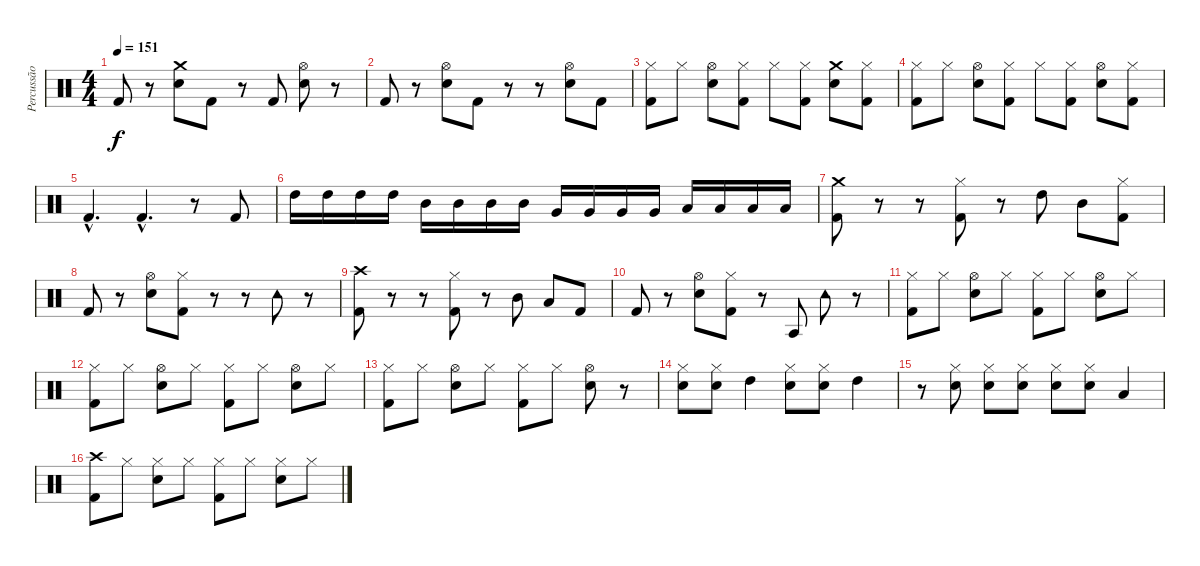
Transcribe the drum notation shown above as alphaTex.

\track ("Percussão" "Percussão") {instrument percussion}
\staff {score}
\articulation defaults
\ts (4 4)
\tempo 151
\clef neutral
\ks c "Kick (hit) 2".8{dy f}
r.8 ("Snare (hit) 2" "Crash medium (hit)").8 "Kick (hit) 2".8 r.8 "Kick (hit) 2".8 ("Snare (hit) 2" "Hi-Hat (open)").8 r.8 |
"Kick (hit) 2".8 r.8 ("Snare (hit) 2" "Hi-Hat (open)").8 "Kick (hit) 2".8 r.8 r.8 ("Snare (hit) 2" "Hi-Hat (open)").8 "Kick (hit) 2".8 |
("Kick (hit) 2" "Hi-Hat (closed)").8 "Hi-Hat (closed)".8 ("Snare (hit) 2" "Hi-Hat (open)").8 ("Kick (hit) 2" "Hi-Hat (closed)").8 "Hi-Hat (closed)".8 ("Kick (hit) 2" "Hi-Hat (closed)").8 ("Snare (hit) 2" "Crash medium (hit)").8 ("Kick (hit) 2" "Hi-Hat (closed)").8 |
("Kick (hit) 2" "Hi-Hat (closed)").8 "Hi-Hat (closed)".8 ("Snare (hit) 2" "Hi-Hat (open)").8 ("Kick (hit) 2" "Hi-Hat (closed)").8 "Hi-Hat (closed)".8 ("Kick (hit) 2" "Hi-Hat (closed)").8 ("Snare (hit) 2" "Hi-Hat (open)").8 ("Kick (hit) 2" "Hi-Hat (closed)").8 |
"Kick (hit) 2"{hac}.4{d} "Kick (hit) 2"{hac}.4{d} r.8 "Kick (hit) 2".8 |
"High Tom (hit)".16 "High Tom (hit)".16 "High Tom (hit)".16 "High Tom (hit)".16 "Mid Tom (hit)".16 "Mid Tom (hit)".16 "Mid Tom (hit)".16 "Mid Tom (hit)".16 "Very Low Tom (hit)".16 "Very Low Tom (hit)".16 "Very Low Tom (hit)".16 "Very Low Tom (hit)".16 "Low Floor Tom (hit)".16 "Low Floor Tom (hit)".16 "Low Floor Tom (hit)".16 "Low Floor Tom (hit)".16 |
("Kick (hit) 2" "Crash medium (hit)").8 r.8 r.8 ("Kick (hit) 2" "Hi-Hat (closed)").8 r.8 "High Tom (hit)".8 "Mid Tom (hit)".8 ("Kick (hit) 2" "Hi-Hat (closed)").8 |
"Kick (hit) 2".8 r.8 ("Snare (hit) 2" "Hi-Hat (open)").8 ("Kick (hit) 2" "Hi-Hat (closed)").8 r.8 r.8 "Tambourine (hit)".8 r.8 |
("Kick (hit) 2" "Crash high (hit)").8 r.8 r.8 ("Kick (hit) 2" "Hi-Hat (closed)").8 r.8 "Mid Tom (hit)".8 "Low Tom (hit)".8 "Kick (hit) 2".8 |
"Kick (hit) 2".8 r.8 ("Snare (hit) 2" "Hi-Hat (open)").8 ("Kick (hit) 2" "Hi-Hat (closed)").8 r.8 "Agogo tow (hit)".8 "Tambourine (hit)".8 r.8 |
("Kick (hit) 2" "Hi-Hat (closed)").8 "Hi-Hat (closed)".8 ("Snare (hit) 2" "Hi-Hat (open)").8 "Hi-Hat (closed)".8 ("Kick (hit) 2" "Hi-Hat (closed)").8 "Hi-Hat (closed)".8 ("Snare (hit) 2" "Hi-Hat (open)").8 "Hi-Hat (closed)".8 |
("Kick (hit) 2" "Hi-Hat (closed)").8 "Hi-Hat (closed)".8 ("Snare (hit) 2" "Hi-Hat (open)").8 "Hi-Hat (closed)".8 ("Kick (hit) 2" "Hi-Hat (closed)").8 "Hi-Hat (closed)".8 ("Snare (hit) 2" "Hi-Hat (open)").8 "Hi-Hat (closed)".8 |
("Kick (hit) 2" "Hi-Hat (closed)").8 "Hi-Hat (closed)".8 ("Snare (hit) 2" "Hi-Hat (open)").8 "Hi-Hat (closed)".8 ("Kick (hit) 2" "Hi-Hat (closed)").8 "Hi-Hat (closed)".8 ("Snare (hit) 2" "Hi-Hat (open)").8 r.8 |
("Snare (hit) 2" "Hi-Hat (closed)").8 ("Snare (hit) 2" "Hi-Hat (closed)").8 "High Tom (hit)".4 ("Snare (hit) 2" "Hi-Hat (closed)").8 ("Snare (hit) 2" "Hi-Hat (closed)").8 "High Tom (hit)".4 |
r.8 ("Snare (hit) 2" "Hi-Hat (closed)").8 ("Snare (hit) 2" "Hi-Hat (closed)").8 ("Snare (hit) 2" "Hi-Hat (closed)").8 ("Snare (hit) 2" "Hi-Hat (closed)").8 ("Snare (hit) 2" "Hi-Hat (closed)").8 "Low Tom (hit)".4 |
("Kick (hit) 2" "Crash high (hit)").8 "Hi-Hat (closed)".8 ("Snare (hit) 2" "Hi-Hat (closed)").8 "Hi-Hat (closed)".8 ("Kick (hit) 2" "Hi-Hat (closed)").8 "Hi-Hat (closed)".8 ("Snare (hit) 2" "Hi-Hat (closed)").8 "Hi-Hat (closed)".8
